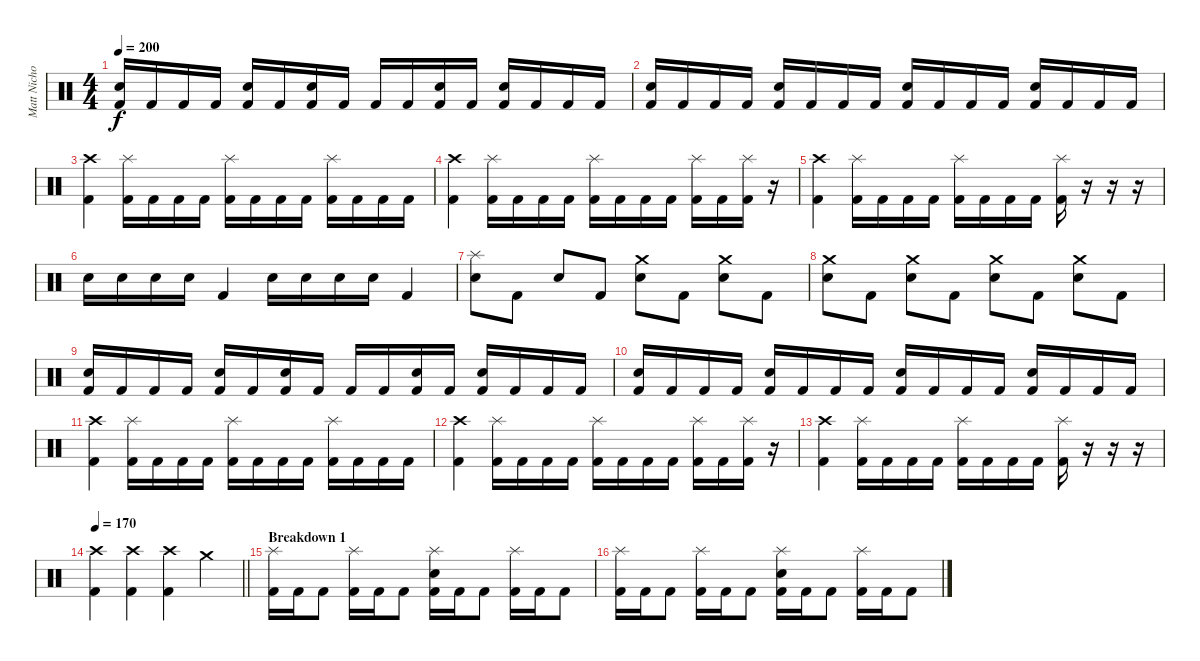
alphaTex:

\track ("Matt Nicholls" "Matt Nicho") {instrument percussion}
\staff {score}
\articulation defaults
\ts (4 4)
\tempo 200
\clef neutral
\ks c
("Snare (hit) 2" "Kick (hit) 2").16{dy f} "Kick (hit) 2".16 "Kick (hit) 2".16 "Kick (hit) 2".16 ("Snare (hit) 2" "Kick (hit) 2").16 "Kick (hit) 2".16 ("Snare (hit) 2" "Kick (hit) 2").16 "Kick (hit) 2".16 "Kick (hit) 2".16 "Kick (hit) 2".16 ("Snare (hit) 2" "Kick (hit) 2").16 "Kick (hit) 2".16 ("Snare (hit) 2" "Kick (hit) 2").16 "Kick (hit) 2".16 "Kick (hit) 2".16 "Kick (hit) 2".16 |
("Snare (hit) 2" "Kick (hit) 2").16 "Kick (hit) 2".16 "Kick (hit) 2".16 "Kick (hit) 2".16 ("Snare (hit) 2" "Kick (hit) 2").16 "Kick (hit) 2".16 "Kick (hit) 2".16 "Kick (hit) 2".16 ("Snare (hit) 2" "Kick (hit) 2").16 "Kick (hit) 2".16 "Kick (hit) 2".16 "Kick (hit) 2".16 ("Snare (hit) 2" "Kick (hit) 2").16 "Kick (hit) 2".16 "Kick (hit) 2".16 "Kick (hit) 2".16 |
("Crash high (hit)" "Kick (hit) 2").4 ("Splash (hit)" "Kick (hit) 2").16 "Kick (hit) 2".16 "Kick (hit) 2".16 "Kick (hit) 2".16 ("Splash (hit)" "Kick (hit) 2").16 "Kick (hit) 2".16 "Kick (hit) 2".16 "Kick (hit) 2".16 ("Splash (hit)" "Kick (hit) 2").16 "Kick (hit) 2".16 "Kick (hit) 2".16 "Kick (hit) 2".16 |
("Crash high (hit)" "Kick (hit) 2").4 ("Splash (hit)" "Kick (hit) 2").16 "Kick (hit) 2".16 "Kick (hit) 2".16 "Kick (hit) 2".16 ("Splash (hit)" "Kick (hit) 2").16 "Kick (hit) 2".16 "Kick (hit) 2".16 "Kick (hit) 2".16 ("Splash (hit)" "Kick (hit) 2").16 "Kick (hit) 2".16 ("Splash (hit)" "Kick (hit) 2").16 r.16 |
("Crash high (hit)" "Kick (hit) 2").4 ("Splash (hit)" "Kick (hit) 2").16 "Kick (hit) 2".16 "Kick (hit) 2".16 "Kick (hit) 2".16 ("Splash (hit)" "Kick (hit) 2").16 "Kick (hit) 2".16 "Kick (hit) 2".16 "Kick (hit) 2".16 ("Splash (hit)" "Kick (hit) 2").16 r.16 r.16 r.16 |
"Snare (hit) 2".16 "Snare (hit) 2".16 "Snare (hit) 2".16 "Snare (hit) 2".16 "Kick (hit) 2".4 "Snare (hit) 2".16 "Snare (hit) 2".16 "Snare (hit) 2".16 "Snare (hit) 2".16 "Kick (hit) 2".4 |
("Splash (hit)" "Snare (hit) 2").8 "Kick (hit) 2".8 "Snare (hit) 2".8 "Kick (hit) 2".8 ("Crash medium (hit)" "Snare (hit) 2").8 "Kick (hit) 2".8 ("Crash medium (hit)" "Snare (hit) 2").8 "Kick (hit) 2".8 |
("Crash medium (hit)" "Snare (hit) 2").8 "Kick (hit) 2".8 ("Crash medium (hit)" "Snare (hit) 2").8 "Kick (hit) 2".8 ("Crash medium (hit)" "Snare (hit) 2").8 "Kick (hit) 2".8 ("Crash medium (hit)" "Snare (hit) 2").8 "Kick (hit) 2".8 |
("Snare (hit) 2" "Kick (hit) 2").16 "Kick (hit) 2".16 "Kick (hit) 2".16 "Kick (hit) 2".16 ("Snare (hit) 2" "Kick (hit) 2").16 "Kick (hit) 2".16 ("Snare (hit) 2" "Kick (hit) 2").16 "Kick (hit) 2".16 "Kick (hit) 2".16 "Kick (hit) 2".16 ("Snare (hit) 2" "Kick (hit) 2").16 "Kick (hit) 2".16 ("Snare (hit) 2" "Kick (hit) 2").16 "Kick (hit) 2".16 "Kick (hit) 2".16 "Kick (hit) 2".16 |
("Snare (hit) 2" "Kick (hit) 2").16 "Kick (hit) 2".16 "Kick (hit) 2".16 "Kick (hit) 2".16 ("Snare (hit) 2" "Kick (hit) 2").16 "Kick (hit) 2".16 "Kick (hit) 2".16 "Kick (hit) 2".16 ("Snare (hit) 2" "Kick (hit) 2").16 "Kick (hit) 2".16 "Kick (hit) 2".16 "Kick (hit) 2".16 ("Snare (hit) 2" "Kick (hit) 2").16 "Kick (hit) 2".16 "Kick (hit) 2".16 "Kick (hit) 2".16 |
("Crash high (hit)" "Kick (hit) 2").4 ("Splash (hit)" "Kick (hit) 2").16 "Kick (hit) 2".16 "Kick (hit) 2".16 "Kick (hit) 2".16 ("Splash (hit)" "Kick (hit) 2").16 "Kick (hit) 2".16 "Kick (hit) 2".16 "Kick (hit) 2".16 ("Splash (hit)" "Kick (hit) 2").16 "Kick (hit) 2".16 "Kick (hit) 2".16 "Kick (hit) 2".16 |
("Crash high (hit)" "Kick (hit) 2").4 ("Splash (hit)" "Kick (hit) 2").16 "Kick (hit) 2".16 "Kick (hit) 2".16 "Kick (hit) 2".16 ("Splash (hit)" "Kick (hit) 2").16 "Kick (hit) 2".16 "Kick (hit) 2".16 "Kick (hit) 2".16 ("Splash (hit)" "Kick (hit) 2").16 "Kick (hit) 2".16 ("Splash (hit)" "Kick (hit) 2").16 r.16 |
("Crash high (hit)" "Kick (hit) 2").4 ("Splash (hit)" "Kick (hit) 2").16 "Kick (hit) 2".16 "Kick (hit) 2".16 "Kick (hit) 2".16 ("Splash (hit)" "Kick (hit) 2").16 "Kick (hit) 2".16 "Kick (hit) 2".16 "Kick (hit) 2".16 ("Splash (hit)" "Kick (hit) 2").16 r.16 r.16 r.16 |
\tempo 170
\barLineRight lightlight
("Crash high (hit)" "Kick (hit) 2").4 ("Crash high (hit)" "Kick (hit) 2").4 ("Crash high (hit)" "Kick (hit) 2").4 "Crash medium (hit)".4 |
\section ("" "Breakdown 1")
("Splash (hit)" "Kick (hit) 2").16 "Kick (hit) 2".16 "Kick (hit) 2".8 ("Splash (hit)" "Kick (hit) 2").16 "Kick (hit) 2".16 "Kick (hit) 2".8 ("Splash (hit)" "Snare (hit) 2" "Kick (hit) 2").16 "Kick (hit) 2".16 "Kick (hit) 2".8 ("Splash (hit)" "Kick (hit) 2").16 "Kick (hit) 2".16 "Kick (hit) 2".8 |
("Splash (hit)" "Kick (hit) 2").16 "Kick (hit) 2".16 "Kick (hit) 2".8 ("Splash (hit)" "Kick (hit) 2").16 "Kick (hit) 2".16 "Kick (hit) 2".8 ("Splash (hit)" "Snare (hit) 2" "Kick (hit) 2").16 "Kick (hit) 2".16 "Kick (hit) 2".8 ("Splash (hit)" "Kick (hit) 2").16 "Kick (hit) 2".16 "Kick (hit) 2".8
